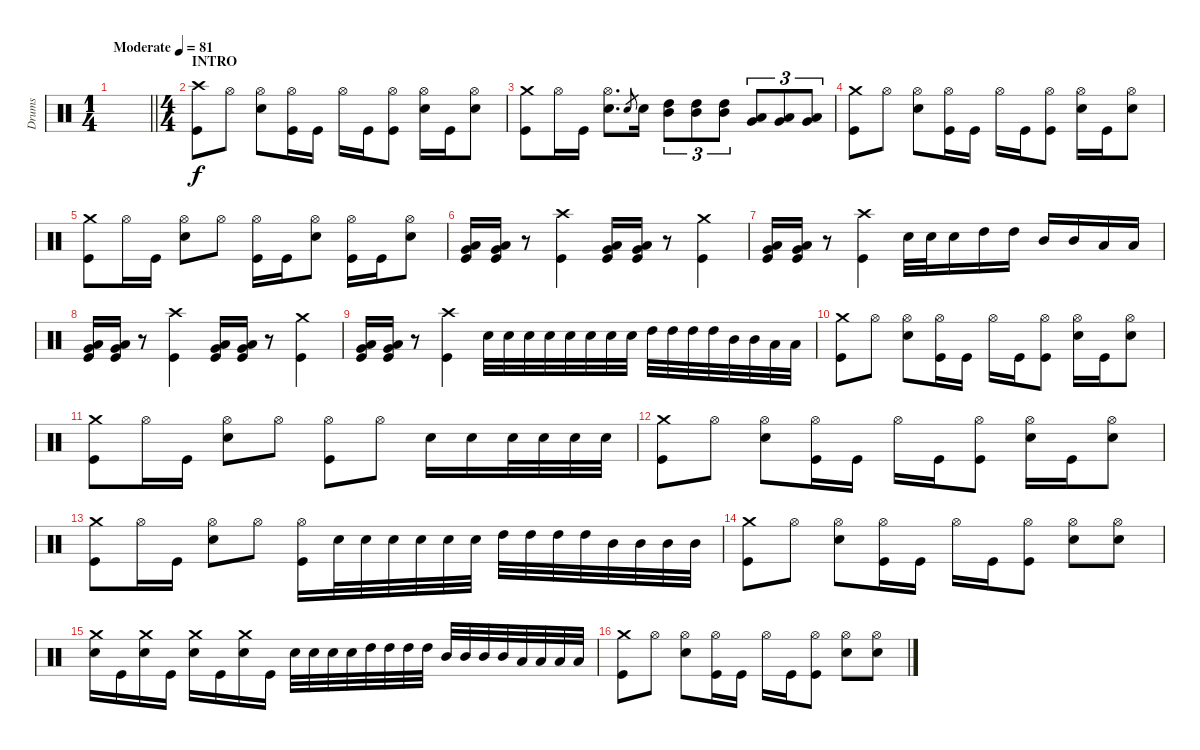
\track ("Drums" "Drums") {instrument percussion}
\staff {score}
\articulation defaults
\ts (1 4)
\tempo (81 "Moderate")
\clef neutral
\barLineRight lightlight
\ks c
|
\ts (4 4)
\section ("" "INTRO")
("Crash high (hit)" "Kick (hit)").8 "Hi-Hat (open)".8 ("Hi-Hat (open)" "Snare (hit) 2").8 ("Hi-Hat (open)" "Kick (hit)").16 "Kick (hit)".16 "Hi-Hat (open)".16 "Kick (hit)".16 ("Hi-Hat (open)" "Kick (hit)").8 ("Hi-Hat (open)" "Snare (hit) 2").16 "Kick (hit)".16 ("Hi-Hat (open)" "Snare (hit) 2").8 |
("Crash medium (hit)" "Kick (hit)").8 "Hi-Hat (open)".16 "Kick (hit)".16 ("Hi-Hat (open)" "Snare (hit) 2").8{d} "Snare (hit) 2".8{gr} "Snare (hit) 2".16 ("Mid Tom (hit)" "High Tom (hit)").8{tu (3 2)} ("Mid Tom (hit)" "High Tom (hit)").8{tu (3 2)} ("Mid Tom (hit)" "High Tom (hit)").8{tu (3 2)} ("Very Low Tom (hit)" "Low Tom (hit)").8{tu (3 2)} ("Very Low Tom (hit)" "Low Tom (hit)").8{tu (3 2)} ("Very Low Tom (hit)" "Low Tom (hit)").8{tu (3 2)} |
("Crash medium (hit)" "Kick (hit)").8 "Hi-Hat (open)".8 ("Hi-Hat (open)" "Snare (hit) 2").8 ("Hi-Hat (open)" "Kick (hit)").16 "Kick (hit)".16 "Hi-Hat (open)".16 "Kick (hit)".16 ("Hi-Hat (open)" "Kick (hit)").8 ("Hi-Hat (open)" "Snare (hit) 2").16 "Kick (hit)".16 ("Hi-Hat (open)" "Snare (hit) 2").8 |
("Crash medium (hit)" "Kick (hit)").8 "Hi-Hat (open)".16 "Kick (hit)".16 ("Hi-Hat (open)" "Snare (hit) 2").8 "Hi-Hat (open)".8 ("Hi-Hat (open)" "Kick (hit)").16 "Kick (hit)".16 ("Hi-Hat (open)" "Snare (hit) 2").8 ("Hi-Hat (open)" "Kick (hit)").16 "Kick (hit)".16 ("Hi-Hat (open)" "Snare (hit) 2").8 |
("Low Tom (hit)" "Very Low Tom (hit)" "Kick (hit)").16 ("Low Tom (hit)" "Very Low Tom (hit)" "Kick (hit)").16 r.8 ("Crash high (hit)" "Kick (hit)").4 ("Low Tom (hit)" "Very Low Tom (hit)" "Kick (hit)").16 ("Low Tom (hit)" "Very Low Tom (hit)" "Kick (hit)").16 r.8 ("Crash medium (hit)" "Kick (hit)").4 |
("Low Tom (hit)" "Very Low Tom (hit)" "Kick (hit)").16 ("Low Tom (hit)" "Very Low Tom (hit)" "Kick (hit)").16 r.8 ("Crash high (hit)" "Kick (hit)").4 "Snare (hit) 2".32 "Snare (hit) 2".32 "Snare (hit) 2".16 "High Tom (hit)".16 "High Tom (hit)".16 "Mid Tom (hit)".16 "Mid Tom (hit)".16 "Low Tom (hit)".16 "Low Tom (hit)".16 |
("Low Tom (hit)" "Very Low Tom (hit)" "Kick (hit)").16 ("Low Tom (hit)" "Very Low Tom (hit)" "Kick (hit)").16 r.8 ("Crash high (hit)" "Kick (hit)").4 ("Low Tom (hit)" "Very Low Tom (hit)" "Kick (hit)").16 ("Low Tom (hit)" "Very Low Tom (hit)" "Kick (hit)").16 r.8 ("Crash medium (hit)" "Kick (hit)").4 |
("Low Tom (hit)" "Very Low Tom (hit)" "Kick (hit)").16 ("Low Tom (hit)" "Very Low Tom (hit)" "Kick (hit)").16 r.8 ("Crash high (hit)" "Kick (hit)").4 "Snare (hit) 2".32 "Snare (hit) 2".32 "Snare (hit) 2".32 "Snare (hit) 2".32 "Snare (hit) 2".32 "Snare (hit) 2".32 "Snare (hit) 2".32 "Snare (hit) 2".32 "High Tom (hit)".32 "High Tom (hit)".32 "High Tom (hit)".32 "High Tom (hit)".32 "Mid Tom (hit)".32 "Mid Tom (hit)".32 "Low Tom (hit)".32 "Low Tom (hit)".32 |
("Crash medium (hit)" "Kick (hit)").8 "Hi-Hat (open)".8 ("Hi-Hat (open)" "Snare (hit) 2").8 ("Hi-Hat (open)" "Kick (hit)").16 "Kick (hit)".16 "Hi-Hat (open)".16 "Kick (hit)".16 ("Hi-Hat (open)" "Kick (hit)").8 ("Hi-Hat (open)" "Snare (hit) 2").16 "Kick (hit)".16 ("Hi-Hat (open)" "Snare (hit) 2").8 |
("Crash medium (hit)" "Kick (hit)").8 "Hi-Hat (open)".16 "Kick (hit)".16 ("Hi-Hat (open)" "Snare (hit) 2").8 "Hi-Hat (open)".8 ("Hi-Hat (open)" "Kick (hit)").8 "Hi-Hat (open)".8 "Snare (hit) 2".16 "Snare (hit) 2".16 "Snare (hit) 2".32 "Snare (hit) 2".32 "Snare (hit) 2".32 "Snare (hit) 2".32 |
("Crash medium (hit)" "Kick (hit)").8 "Hi-Hat (open)".8 ("Hi-Hat (open)" "Snare (hit) 2").8 ("Hi-Hat (open)" "Kick (hit)").16 "Kick (hit)".16 "Hi-Hat (open)".16 "Kick (hit)".16 ("Hi-Hat (open)" "Kick (hit)").8 ("Hi-Hat (open)" "Snare (hit) 2").16 "Kick (hit)".16 ("Hi-Hat (open)" "Snare (hit) 2").8 |
("Crash medium (hit)" "Kick (hit)").8 "Hi-Hat (open)".16 "Kick (hit)".16 ("Hi-Hat (open)" "Snare (hit) 2").8 "Hi-Hat (open)".8 ("Hi-Hat (open)" "Kick (hit)").16 "Snare (hit) 2".32 "Snare (hit) 2".32 "Snare (hit) 2".32 "Snare (hit) 2".32 "Snare (hit) 2".32 "Snare (hit) 2".32 "High Tom (hit)".32 "High Tom (hit)".32 "High Tom (hit)".32 "High Tom (hit)".32 "Mid Tom (hit)".32 "Mid Tom (hit)".32 "Mid Tom (hit)".32 "Mid Tom (hit)".32 |
("Crash medium (hit)" "Kick (hit)").8 "Hi-Hat (open)".8 ("Hi-Hat (open)" "Snare (hit) 2").8 ("Hi-Hat (open)" "Kick (hit)").16 "Kick (hit)".16 "Hi-Hat (open)".16 "Kick (hit)".16 ("Hi-Hat (open)" "Kick (hit)").8 ("Hi-Hat (open)" "Snare (hit) 2").8 ("Hi-Hat (open)" "Snare (hit) 2").8 |
("Crash medium (hit)" "Snare (hit) 2").16 "Kick (hit)".16 ("Crash medium (hit)" "Snare (hit) 2").16 "Kick (hit)".16 ("Crash medium (hit)" "Snare (hit) 2").16 "Kick (hit)".16 ("Crash medium (hit)" "Snare (hit) 2").16 "Kick (hit)".16 "Snare (hit) 2".32 "Snare (hit) 2".32 "Snare (hit) 2".32 "Snare (hit) 2".32 "High Tom (hit)".32 "High Tom (hit)".32 "High Tom (hit)".32 "High Tom (hit)".32 "Mid Tom (hit)".32 "Mid Tom (hit)".32 "Mid Tom (hit)".32 "Mid Tom (hit)".32 "Low Tom (hit)".32 "Low Tom (hit)".32 "Low Tom (hit)".32 "Low Tom (hit)".32 |
("Crash medium (hit)" "Kick (hit)").8 "Hi-Hat (open)".8 ("Hi-Hat (open)" "Snare (hit) 2").8 ("Hi-Hat (open)" "Kick (hit)").16 "Kick (hit)".16 "Hi-Hat (open)".16 "Kick (hit)".16 ("Hi-Hat (open)" "Kick (hit)").8 ("Hi-Hat (open)" "Snare (hit) 2").8 ("Hi-Hat (open)" "Snare (hit) 2").8
